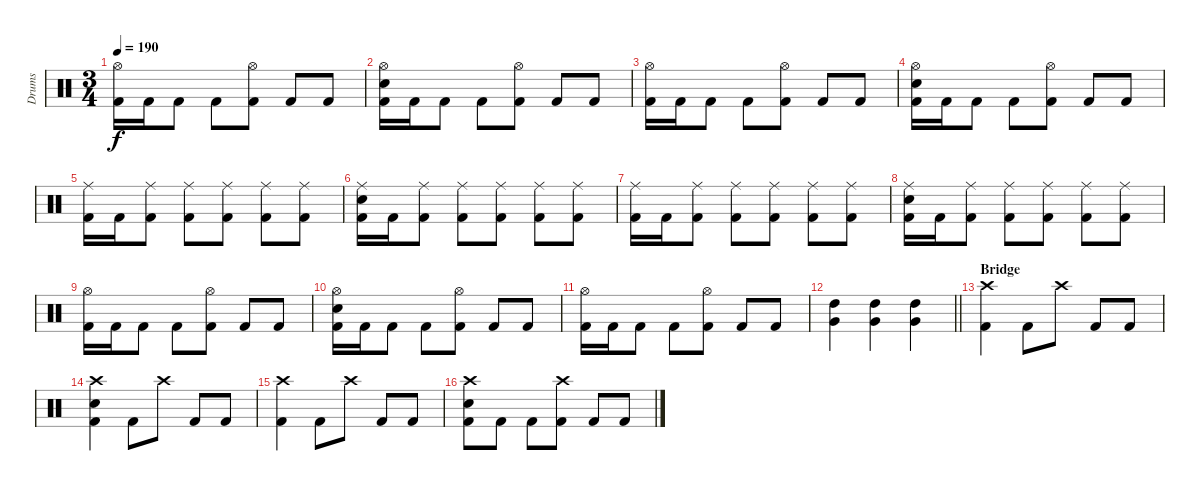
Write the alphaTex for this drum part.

\track ("Drums" "Drums") {instrument percussion}
\staff {score}
\articulation defaults
\ts (3 4)
\tempo 190
\clef neutral
\ks c
("Hi-Hat (open)" "Kick (hit) 2").16{dy f} "Kick (hit) 2".16 "Kick (hit) 2".8 "Kick (hit) 2".8 ("Hi-Hat (open)" "Kick (hit) 2").8 "Kick (hit) 2".8 "Kick (hit) 2".8 |
("Hi-Hat (open)" "Snare (hit) 2" "Kick (hit) 2").16 "Kick (hit) 2".16 "Kick (hit) 2".8 "Kick (hit) 2".8 ("Hi-Hat (open)" "Kick (hit) 2").8 "Kick (hit) 2".8 "Kick (hit) 2".8 |
("Hi-Hat (open)" "Kick (hit) 2").16 "Kick (hit) 2".16 "Kick (hit) 2".8 "Kick (hit) 2".8 ("Hi-Hat (open)" "Kick (hit) 2").8 "Kick (hit) 2".8 "Kick (hit) 2".8 |
("Hi-Hat (open)" "Snare (hit) 2" "Kick (hit) 2").16 "Kick (hit) 2".16 "Kick (hit) 2".8 "Kick (hit) 2".8 ("Hi-Hat (open)" "Kick (hit) 2").8 "Kick (hit) 2".8 "Kick (hit) 2".8 |
("Ride (middle)" "Kick (hit) 2").16 "Kick (hit) 2".16 ("Ride (middle)" "Kick (hit) 2").8 ("Ride (middle)" "Kick (hit) 2").8 ("Ride (middle)" "Kick (hit) 2").8 ("Ride (middle)" "Kick (hit) 2").8 ("Ride (middle)" "Kick (hit) 2").8 |
("Ride (middle)" "Snare (hit) 2" "Kick (hit) 2").16 "Kick (hit) 2".16 ("Ride (middle)" "Kick (hit) 2").8 ("Ride (middle)" "Kick (hit) 2").8 ("Ride (middle)" "Kick (hit) 2").8 ("Ride (middle)" "Kick (hit) 2").8 ("Ride (middle)" "Kick (hit) 2").8 |
("Ride (middle)" "Kick (hit) 2").16 "Kick (hit) 2".16 ("Ride (middle)" "Kick (hit) 2").8 ("Ride (middle)" "Kick (hit) 2").8 ("Ride (middle)" "Kick (hit) 2").8 ("Ride (middle)" "Kick (hit) 2").8 ("Ride (middle)" "Kick (hit) 2").8 |
("Ride (middle)" "Snare (hit) 2" "Kick (hit) 2").16 "Kick (hit) 2".16 ("Ride (middle)" "Kick (hit) 2").8 ("Ride (middle)" "Kick (hit) 2").8 ("Ride (middle)" "Kick (hit) 2").8 ("Ride (middle)" "Kick (hit) 2").8 ("Ride (middle)" "Kick (hit) 2").8 |
("Hi-Hat (open)" "Kick (hit) 2").16 "Kick (hit) 2".16 "Kick (hit) 2".8 "Kick (hit) 2".8 ("Hi-Hat (open)" "Kick (hit) 2").8 "Kick (hit) 2".8 "Kick (hit) 2".8 |
("Hi-Hat (open)" "Snare (hit) 2" "Kick (hit) 2").16 "Kick (hit) 2".16 "Kick (hit) 2".8 "Kick (hit) 2".8 ("Hi-Hat (open)" "Kick (hit) 2").8 "Kick (hit) 2".8 "Kick (hit) 2".8 |
("Hi-Hat (open)" "Kick (hit) 2").16 "Kick (hit) 2".16 "Kick (hit) 2".8 "Kick (hit) 2".8 ("Hi-Hat (open)" "Kick (hit) 2").8 "Kick (hit) 2".8 "Kick (hit) 2".8 |
\barLineRight lightlight
("High Tom (hit)" "Very Low Tom (hit)").4 ("High Tom (hit)" "Very Low Tom (hit)").4 ("High Tom (hit)" "Very Low Tom (hit)").4 |
\section ("" "Bridge")
("Crash high (hit)" "Kick (hit) 2").4 "Kick (hit) 2".8 "Crash high (hit)".8 "Kick (hit) 2".8 "Kick (hit) 2".8 |
("Crash high (hit)" "Snare (hit) 2" "Kick (hit) 2").4 "Kick (hit) 2".8 "Crash high (hit)".8 "Kick (hit) 2".8 "Kick (hit) 2".8 |
("Crash high (hit)" "Kick (hit) 2").4 "Kick (hit) 2".8 "Crash high (hit)".8 "Kick (hit) 2".8 "Kick (hit) 2".8 |
("Crash high (hit)" "Snare (hit) 2" "Kick (hit) 2").8 "Kick (hit) 2".8 "Kick (hit) 2".8 ("Crash high (hit)" "Kick (hit) 2").8 "Kick (hit) 2".8 "Kick (hit) 2".8
